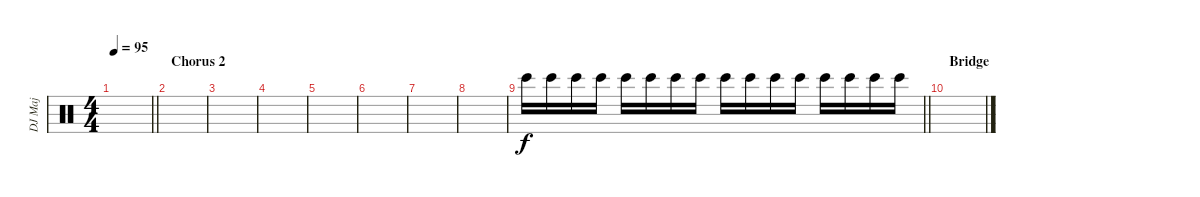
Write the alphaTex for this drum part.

\track ("DJ Maj" "DJ Maj") {instrument percussion}
\staff {score}
\articulation defaults
\ts (4 4)
\tempo 95
\clef neutral
\barLineRight lightlight
\ks c
|
\section ("" "Chorus 2")
|
|
|
|
|
|
|
\barLineRight lightlight "Bongo High (hit)".16 "Bongo High (hit)".16 "Bongo High (hit)".16 "Bongo High (hit)".16 "Bongo High (hit)".16 "Bongo High (hit)".16 "Bongo High (hit)".16 "Bongo High (hit)".16 "Bongo High (hit)".16 "Bongo High (hit)".16 "Bongo High (hit)".16 "Bongo High (hit)".16 "Bongo High (hit)".16 "Bongo High (hit)".16 "Bongo High (hit)".16 "Bongo High (hit)".16
|
\section ("" "Bridge")
